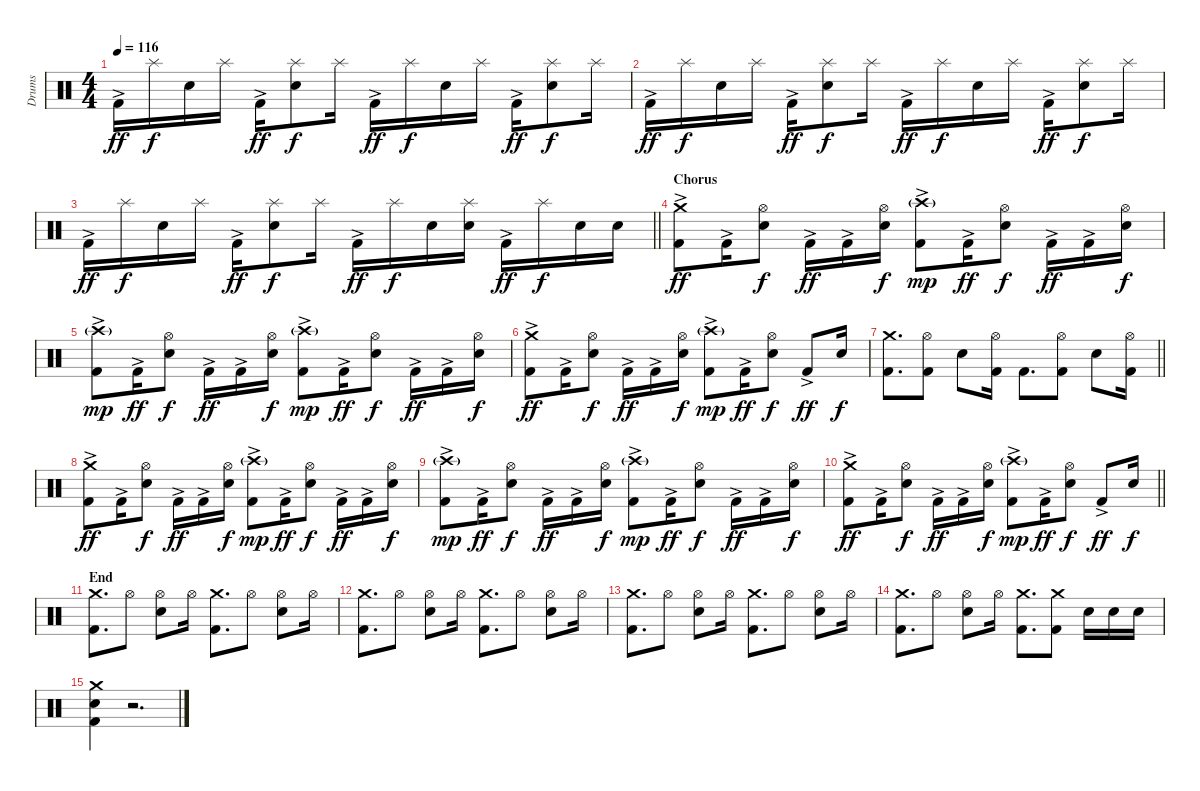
\track ("Drums" "Drums") {instrument percussion}
\staff {score}
\articulation defaults
\ts (4 4)
\tempo 116
\clef neutral
\ks c "Kick (hit) 2"{ac}.16{dy ff} "Splash (hit)".16{dy f} "Snare (hit) 2".16 "Splash (hit)".16 "Kick (hit) 2"{ac}.16{dy ff}
("Snare (hit) 2" "Splash (hit)").8{dy f} "Splash (hit)".16 "Kick (hit) 2"{ac}.16{dy ff} "Splash (hit)".16{dy f} "Snare (hit) 2".16 "Splash (hit)".16 "Kick (hit) 2"{ac}.16{dy ff} ("Snare (hit) 2" "Splash (hit)").8{dy f} "Splash (hit)".16 |
"Kick (hit) 2"{ac}.16{dy ff} "Splash (hit)".16{dy f} "Snare (hit) 2".16 "Splash (hit)".16 "Kick (hit) 2"{ac}.16{dy ff} ("Snare (hit) 2" "Splash (hit)").8{dy f} "Splash (hit)".16 "Kick (hit) 2"{ac}.16{dy ff} "Splash (hit)".16{dy f} "Snare (hit) 2".16 "Splash (hit)".16 "Kick (hit) 2"{ac}.16{dy ff} ("Snare (hit) 2" "Splash (hit)").8{dy f} "Splash (hit)".16 |
\barLineRight lightlight "Kick (hit) 2"{ac}.16{dy ff} "Splash (hit)".16{dy f} "Snare (hit) 2".16 "Splash (hit)".16 "Kick (hit) 2"{ac}.16{dy ff}
("Snare (hit) 2" "Splash (hit)").8{dy f} "Splash (hit)".16 "Kick (hit) 2"{ac}.16{dy ff} "Splash (hit)".16{dy f} "Snare (hit) 2".16 ("Snare (hit) 2" "Splash (hit)").16 "Kick (hit) 2"{ac}.16{dy ff} "Splash (hit)".16{dy f} "Snare (hit) 2".16 "Snare (hit) 2".16 |
\section ("" "Chorus")
("Kick (hit) 2"{ac} "Crash medium (hit)").8{dy ff} "Kick (hit) 2"{ac}.16 ("Snare (hit) 2" "Hi-Hat (open)").8{dy f} "Kick (hit) 2"{ac}.16{dy ff} "Kick (hit) 2"{ac}.16 ("Snare (hit) 2" "Hi-Hat (open)").16{dy f} ("Kick (hit) 2"{ac} "Crash high (hit)"{g}).8{dy mp} "Kick (hit) 2"{ac}.16{dy ff} ("Snare (hit) 2" "Hi-Hat (open)").8{dy f} "Kick (hit) 2"{ac}.16{dy ff} "Kick (hit) 2"{ac}.16 ("Snare (hit) 2" "Hi-Hat (open)").16{dy f} |
("Kick (hit) 2"{ac} "Crash high (hit)"{g}).8{dy mp} "Kick (hit) 2"{ac}.16{dy ff} ("Snare (hit) 2" "Hi-Hat (open)").8{dy f} "Kick (hit) 2"{ac}.16{dy ff} "Kick (hit) 2"{ac}.16 ("Snare (hit) 2" "Hi-Hat (open)").16{dy f} ("Kick (hit) 2"{ac} "Crash high (hit)"{g}).8{dy mp} "Kick (hit) 2"{ac}.16{dy ff} ("Snare (hit) 2" "Hi-Hat (open)").8{dy f} "Kick (hit) 2"{ac}.16{dy ff} "Kick (hit) 2"{ac}.16 ("Snare (hit) 2" "Hi-Hat (open)").16{dy f} |
("Kick (hit) 2"{ac} "Crash medium (hit)").8{dy ff} "Kick (hit) 2"{ac}.16 ("Snare (hit) 2" "Hi-Hat (open)").8{dy f} "Kick (hit) 2"{ac}.16{dy ff} "Kick (hit) 2"{ac}.16 ("Snare (hit) 2" "Hi-Hat (open)").16{dy f} ("Kick (hit) 2"{ac} "Crash high (hit)"{g}).8{dy mp} "Kick (hit) 2"{ac}.16{dy ff} ("Snare (hit) 2" "Hi-Hat (open)").8{dy f} "Kick (hit) 2"{ac}.8{dy ff} "Snare (hit) 2".16{dy f} |
\barLineRight lightlight
("Kick (hit) 2" "Crash medium (hit)").8{d} ("Kick (hit) 2" "Hi-Hat (open)").8 "Snare (hit) 2".8 ("Kick (hit) 2" "Hi-Hat (open)").16 "Kick (hit) 2".8{d} ("Kick (hit) 2" "Hi-Hat (open)").8 "Snare (hit) 2".8 ("Kick (hit) 2" "Hi-Hat (open)").16 |
\section ("" "")
("Kick (hit) 2"{ac} "Crash medium (hit)").8{dy ff} "Kick (hit) 2"{ac}.16 ("Snare (hit) 2" "Hi-Hat (open)").8{dy f} "Kick (hit) 2"{ac}.16{dy ff} "Kick (hit) 2"{ac}.16 ("Snare (hit) 2" "Hi-Hat (open)").16{dy f} ("Kick (hit) 2"{ac} "Crash high (hit)"{g}).8{dy mp} "Kick (hit) 2"{ac}.16{dy ff} ("Snare (hit) 2" "Hi-Hat (open)").8{dy f} "Kick (hit) 2"{ac}.16{dy ff} "Kick (hit) 2"{ac}.16 ("Snare (hit) 2" "Hi-Hat (open)").16{dy f} |
("Kick (hit) 2"{ac} "Crash high (hit)"{g}).8{dy mp} "Kick (hit) 2"{ac}.16{dy ff} ("Snare (hit) 2" "Hi-Hat (open)").8{dy f} "Kick (hit) 2"{ac}.16{dy ff} "Kick (hit) 2"{ac}.16 ("Snare (hit) 2" "Hi-Hat (open)").16{dy f} ("Kick (hit) 2"{ac} "Crash high (hit)"{g}).8{dy mp} "Kick (hit) 2"{ac}.16{dy ff} ("Snare (hit) 2" "Hi-Hat (open)").8{dy f} "Kick (hit) 2"{ac}.16{dy ff} "Kick (hit) 2"{ac}.16 ("Snare (hit) 2" "Hi-Hat (open)").16{dy f} |
\barLineRight lightlight
("Kick (hit) 2"{ac} "Crash medium (hit)").8{dy ff} "Kick (hit) 2"{ac}.16 ("Snare (hit) 2" "Hi-Hat (open)").8{dy f} "Kick (hit) 2"{ac}.16{dy ff} "Kick (hit) 2"{ac}.16 ("Snare (hit) 2" "Hi-Hat (open)").16{dy f} ("Kick (hit) 2"{ac} "Crash high (hit)"{g}).8{dy mp} "Kick (hit) 2"{ac}.16{dy ff} ("Snare (hit) 2" "Hi-Hat (open)").8{dy f} "Kick (hit) 2"{ac}.8{dy ff} "Snare (hit) 2".16{dy f} |
\section ("" "End")
("Kick (hit) 2" "Crash medium (hit)").8{d} "Hi-Hat (open)".8 ("Snare (hit) 2" "Hi-Hat (open)").8 "Hi-Hat (open)".16 ("Kick (hit) 2" "Crash medium (hit)").8{d} "Hi-Hat (open)".8 ("Snare (hit) 2" "Hi-Hat (open)").8 "Hi-Hat (open)".16 |
("Kick (hit) 2" "Crash medium (hit)").8{d} "Hi-Hat (open)".8 ("Snare (hit) 2" "Hi-Hat (open)").8 "Hi-Hat (open)".16 ("Kick (hit) 2" "Crash medium (hit)").8{d} "Hi-Hat (open)".8 ("Snare (hit) 2" "Hi-Hat (open)").8 "Hi-Hat (open)".16 |
("Kick (hit) 2" "Crash medium (hit)").8{d} "Hi-Hat (open)".8 ("Snare (hit) 2" "Hi-Hat (open)").8 "Hi-Hat (open)".16 ("Kick (hit) 2" "Crash medium (hit)").8{d} "Hi-Hat (open)".8 ("Snare (hit) 2" "Hi-Hat (open)").8 "Hi-Hat (open)".16 |
("Kick (hit) 2" "Crash medium (hit)").8{d} "Hi-Hat (open)".8 ("Snare (hit) 2" "Hi-Hat (open)").8 "Hi-Hat (open)".16 ("Kick (hit) 2" "Crash medium (hit)").8{d} ("Kick (hit) 2" "Crash medium (hit)").8 "Snare (hit) 2".16 "Snare (hit) 2".16 "Snare (hit) 2".16 |
("Kick (hit) 2" "Snare (hit) 2" "Crash medium (hit)").4 r.2{d}
